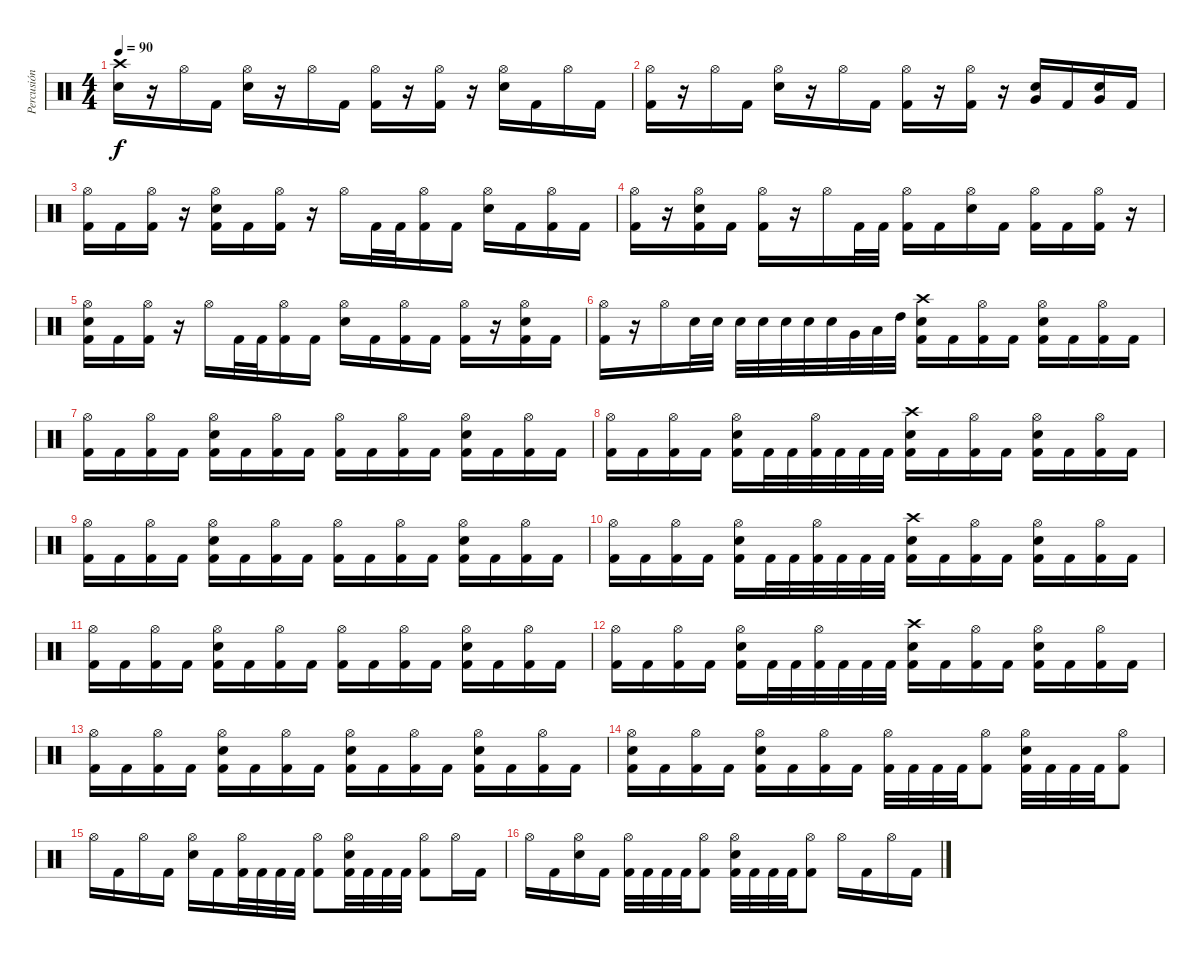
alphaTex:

\track ("Percusión" "Percusión") {instrument percussion}
\staff {score}
\articulation defaults
\ts (4 4)
\tempo 90
\clef neutral
\ks c
("Electric Snare (hit)" "Crash high (hit)").16{dy f} r.16 "Hi-Hat (open)".16 "Kick (hit) 2".16 ("Hi-Hat (open)" "Electric Snare (hit)").16 r.16 "Hi-Hat (open)".16 "Kick (hit) 2".16 ("Hi-Hat (open)" "Kick (hit) 2").16 r.16 ("Hi-Hat (open)" "Kick (hit) 2").16 r.16 ("Hi-Hat (open)" "Electric Snare (hit)").16 "Kick (hit) 2".16 "Hi-Hat (open)".16 "Kick (hit) 2".16 |
("Hi-Hat (open)" "Kick (hit) 2").16 r.16 "Hi-Hat (open)".16 "Kick (hit) 2".16 ("Hi-Hat (open)" "Electric Snare (hit)").16 r.16 "Hi-Hat (open)".16 "Kick (hit) 2".16 ("Hi-Hat (open)" "Kick (hit) 2").16 r.16 ("Hi-Hat (open)" "Kick (hit) 2").16 r.16 ("Very Low Tom (hit)" "Electric Snare (hit)").16 "Kick (hit) 2".16 ("Very Low Tom (hit)" "Electric Snare (hit)").16 "Kick (hit) 2".16 |
("Hi-Hat (open)" "Kick (hit) 2").16 "Kick (hit) 2".16 ("Hi-Hat (open)" "Kick (hit) 2").16 r.16 ("Hi-Hat (open)" "Electric Snare (hit)" "Kick (hit) 2").16 "Kick (hit) 2".16 ("Hi-Hat (open)" "Kick (hit) 2").16 r.16 "Hi-Hat (open)".16 "Kick (hit) 2".32 "Kick (hit) 2".32 ("Hi-Hat (open)" "Kick (hit) 2").16 "Kick (hit) 2".16 ("Hi-Hat (open)" "Electric Snare (hit)").16 "Kick (hit) 2".16 ("Hi-Hat (open)" "Kick (hit) 2").16 "Kick (hit) 2".16 |
("Hi-Hat (open)" "Kick (hit) 2").16 r.16 ("Hi-Hat (open)" "Electric Snare (hit)" "Kick (hit) 2").16 "Kick (hit) 2".16 ("Hi-Hat (open)" "Kick (hit) 2").16 r.16 "Hi-Hat (open)".16 "Kick (hit) 2".32 "Kick (hit) 2".32 ("Hi-Hat (open)" "Kick (hit) 2").16 "Kick (hit) 2".16 ("Hi-Hat (open)" "Electric Snare (hit)").16 "Kick (hit) 2".16 ("Hi-Hat (open)" "Kick (hit) 2").16 "Kick (hit) 2".16 ("Hi-Hat (open)" "Kick (hit) 2").16 r.16 |
("Hi-Hat (open)" "Electric Snare (hit)" "Kick (hit) 2").16 "Kick (hit) 2".16 ("Hi-Hat (open)" "Kick (hit) 2").16 r.16 "Hi-Hat (open)".16 "Kick (hit) 2".32 "Kick (hit) 2".32 ("Hi-Hat (open)" "Kick (hit) 2").16 "Kick (hit) 2".16 ("Hi-Hat (open)" "Electric Snare (hit)").16 "Kick (hit) 2".16 ("Hi-Hat (open)" "Kick (hit) 2").16 "Kick (hit) 2".16 ("Hi-Hat (open)" "Kick (hit) 2").16 r.16 ("Hi-Hat (open)" "Electric Snare (hit)" "Kick (hit) 2").16 "Kick (hit) 2".16 |
("Hi-Hat (open)" "Kick (hit) 2").16 r.16 "Hi-Hat (open)".16 "Electric Snare (hit)".32 "Electric Snare (hit)".32 "Electric Snare (hit)".32 "Electric Snare (hit)".32 "Electric Snare (hit)".32 "Electric Snare (hit)".32 "Electric Snare (hit)".32 "Very Low Tom (hit)".32 "Low Tom (hit)".32 "High Tom (hit)".32 ("Electric Snare (hit)" "Crash high (hit)" "Kick (hit) 2").16 "Kick (hit) 2".16 ("Hi-Hat (open)" "Kick (hit) 2").16 "Kick (hit) 2".16 ("Hi-Hat (open)" "Electric Snare (hit)" "Kick (hit) 2").16 "Kick (hit) 2".16 ("Hi-Hat (open)" "Kick (hit) 2").16 "Kick (hit) 2".16 |
("Hi-Hat (open)" "Kick (hit) 2").16 "Kick (hit) 2".16 ("Hi-Hat (open)" "Kick (hit) 2").16 "Kick (hit) 2".16 ("Hi-Hat (open)" "Electric Snare (hit)" "Kick (hit) 2").16 "Kick (hit) 2".16 ("Hi-Hat (open)" "Kick (hit) 2").16 "Kick (hit) 2".16 ("Hi-Hat (open)" "Kick (hit) 2").16 "Kick (hit) 2".16 ("Hi-Hat (open)" "Kick (hit) 2").16 "Kick (hit) 2".16 ("Hi-Hat (open)" "Electric Snare (hit)" "Kick (hit) 2").16 "Kick (hit) 2".16 ("Hi-Hat (open)" "Kick (hit) 2").16 "Kick (hit) 2".16 |
("Hi-Hat (open)" "Kick (hit) 2").16 "Kick (hit) 2".16 ("Hi-Hat (open)" "Kick (hit) 2").16 "Kick (hit) 2".16 ("Hi-Hat (open)" "Electric Snare (hit)" "Kick (hit) 2").16 "Kick (hit) 2".32 "Kick (hit) 2".32 ("Hi-Hat (open)" "Kick (hit) 2").32 "Kick (hit) 2".32 "Kick (hit) 2".32 "Kick (hit) 2".32 ("Electric Snare (hit)" "Crash high (hit)" "Kick (hit) 2").16 "Kick (hit) 2".16 ("Hi-Hat (open)" "Kick (hit) 2").16 "Kick (hit) 2".16 ("Hi-Hat (open)" "Electric Snare (hit)" "Kick (hit) 2").16 "Kick (hit) 2".16 ("Hi-Hat (open)" "Kick (hit) 2").16 "Kick (hit) 2".16 |
("Hi-Hat (open)" "Kick (hit) 2").16 "Kick (hit) 2".16 ("Hi-Hat (open)" "Kick (hit) 2").16 "Kick (hit) 2".16 ("Hi-Hat (open)" "Electric Snare (hit)" "Kick (hit) 2").16 "Kick (hit) 2".16 ("Hi-Hat (open)" "Kick (hit) 2").16 "Kick (hit) 2".16 ("Hi-Hat (open)" "Kick (hit) 2").16 "Kick (hit) 2".16 ("Hi-Hat (open)" "Kick (hit) 2").16 "Kick (hit) 2".16 ("Hi-Hat (open)" "Electric Snare (hit)" "Kick (hit) 2").16 "Kick (hit) 2".16 ("Hi-Hat (open)" "Kick (hit) 2").16 "Kick (hit) 2".16 |
("Hi-Hat (open)" "Kick (hit) 2").16 "Kick (hit) 2".16 ("Hi-Hat (open)" "Kick (hit) 2").16 "Kick (hit) 2".16 ("Hi-Hat (open)" "Electric Snare (hit)" "Kick (hit) 2").16 "Kick (hit) 2".32 "Kick (hit) 2".32 ("Hi-Hat (open)" "Kick (hit) 2").32 "Kick (hit) 2".32 "Kick (hit) 2".32 "Kick (hit) 2".32 ("Electric Snare (hit)" "Crash high (hit)" "Kick (hit) 2").16 "Kick (hit) 2".16 ("Hi-Hat (open)" "Kick (hit) 2").16 "Kick (hit) 2".16 ("Hi-Hat (open)" "Electric Snare (hit)" "Kick (hit) 2").16 "Kick (hit) 2".16 ("Hi-Hat (open)" "Kick (hit) 2").16 "Kick (hit) 2".16 |
("Hi-Hat (open)" "Kick (hit) 2").16 "Kick (hit) 2".16 ("Hi-Hat (open)" "Kick (hit) 2").16 "Kick (hit) 2".16 ("Hi-Hat (open)" "Electric Snare (hit)" "Kick (hit) 2").16 "Kick (hit) 2".16 ("Hi-Hat (open)" "Kick (hit) 2").16 "Kick (hit) 2".16 ("Hi-Hat (open)" "Kick (hit) 2").16 "Kick (hit) 2".16 ("Hi-Hat (open)" "Kick (hit) 2").16 "Kick (hit) 2".16 ("Hi-Hat (open)" "Electric Snare (hit)" "Kick (hit) 2").16 "Kick (hit) 2".16 ("Hi-Hat (open)" "Kick (hit) 2").16 "Kick (hit) 2".16 |
("Hi-Hat (open)" "Kick (hit) 2").16 "Kick (hit) 2".16 ("Hi-Hat (open)" "Kick (hit) 2").16 "Kick (hit) 2".16 ("Hi-Hat (open)" "Electric Snare (hit)" "Kick (hit) 2").16 "Kick (hit) 2".32 "Kick (hit) 2".32 ("Hi-Hat (open)" "Kick (hit) 2").32 "Kick (hit) 2".32 "Kick (hit) 2".32 "Kick (hit) 2".32 ("Electric Snare (hit)" "Crash high (hit)" "Kick (hit) 2").16 "Kick (hit) 2".16 ("Hi-Hat (open)" "Kick (hit) 2").16 "Kick (hit) 2".16 ("Hi-Hat (open)" "Electric Snare (hit)" "Kick (hit) 2").16 "Kick (hit) 2".16 ("Hi-Hat (open)" "Kick (hit) 2").16 "Kick (hit) 2".16 |
("Hi-Hat (open)" "Kick (hit) 2").16 "Kick (hit) 2".16 ("Hi-Hat (open)" "Kick (hit) 2").16 "Kick (hit) 2".16 ("Hi-Hat (open)" "Electric Snare (hit)" "Kick (hit) 2").16 "Kick (hit) 2".16 ("Hi-Hat (open)" "Kick (hit) 2").16 "Kick (hit) 2".16 ("Electric Snare (hit)" "Hi-Hat (open)" "Kick (hit) 2").16 "Kick (hit) 2".16 ("Hi-Hat (open)" "Kick (hit) 2").16 "Kick (hit) 2".16 ("Hi-Hat (open)" "Electric Snare (hit)" "Kick (hit) 2").16 "Kick (hit) 2".16 ("Hi-Hat (open)" "Kick (hit) 2").16 "Kick (hit) 2".16 |
("Electric Snare (hit)" "Hi-Hat (open)" "Kick (hit) 2").16 "Kick (hit) 2".16 ("Hi-Hat (open)" "Kick (hit) 2").16 "Kick (hit) 2".16 ("Hi-Hat (open)" "Electric Snare (hit)" "Kick (hit) 2").16 "Kick (hit) 2".16 ("Hi-Hat (open)" "Kick (hit) 2").16 "Kick (hit) 2".16 ("Hi-Hat (open)" "Kick (hit) 2").32 "Kick (hit) 2".32 "Kick (hit) 2".32 "Kick (hit) 2".32 ("Hi-Hat (open)" "Kick (hit) 2").8 ("Hi-Hat (open)" "Electric Snare (hit)" "Kick (hit) 2").32 "Kick (hit) 2".32 "Kick (hit) 2".32 "Kick (hit) 2".32 ("Hi-Hat (open)" "Kick (hit) 2").8 |
"Hi-Hat (open)".16 "Kick (hit) 2".16 "Hi-Hat (open)".16 "Kick (hit) 2".16 ("Hi-Hat (open)" "Electric Snare (hit)").16 "Kick (hit) 2".16 ("Hi-Hat (open)" "Kick (hit) 2").32 "Kick (hit) 2".32 "Kick (hit) 2".32 "Kick (hit) 2".32 ("Hi-Hat (open)" "Kick (hit) 2").8 ("Hi-Hat (open)" "Electric Snare (hit)" "Kick (hit) 2").32 "Kick (hit) 2".32 "Kick (hit) 2".32 "Kick (hit) 2".32 ("Hi-Hat (open)" "Kick (hit) 2").8 "Hi-Hat (open)".16 "Kick (hit) 2".16 |
"Hi-Hat (open)".16 "Kick (hit) 2".16 ("Hi-Hat (open)" "Electric Snare (hit)").16 "Kick (hit) 2".16 ("Hi-Hat (open)" "Kick (hit) 2").32 "Kick (hit) 2".32 "Kick (hit) 2".32 "Kick (hit) 2".32 ("Hi-Hat (open)" "Kick (hit) 2").8 ("Hi-Hat (open)" "Electric Snare (hit)" "Kick (hit) 2").32 "Kick (hit) 2".32 "Kick (hit) 2".32 "Kick (hit) 2".32 ("Hi-Hat (open)" "Kick (hit) 2").8 "Hi-Hat (open)".16 "Kick (hit) 2".16 "Hi-Hat (open)".16 "Kick (hit) 2".16
